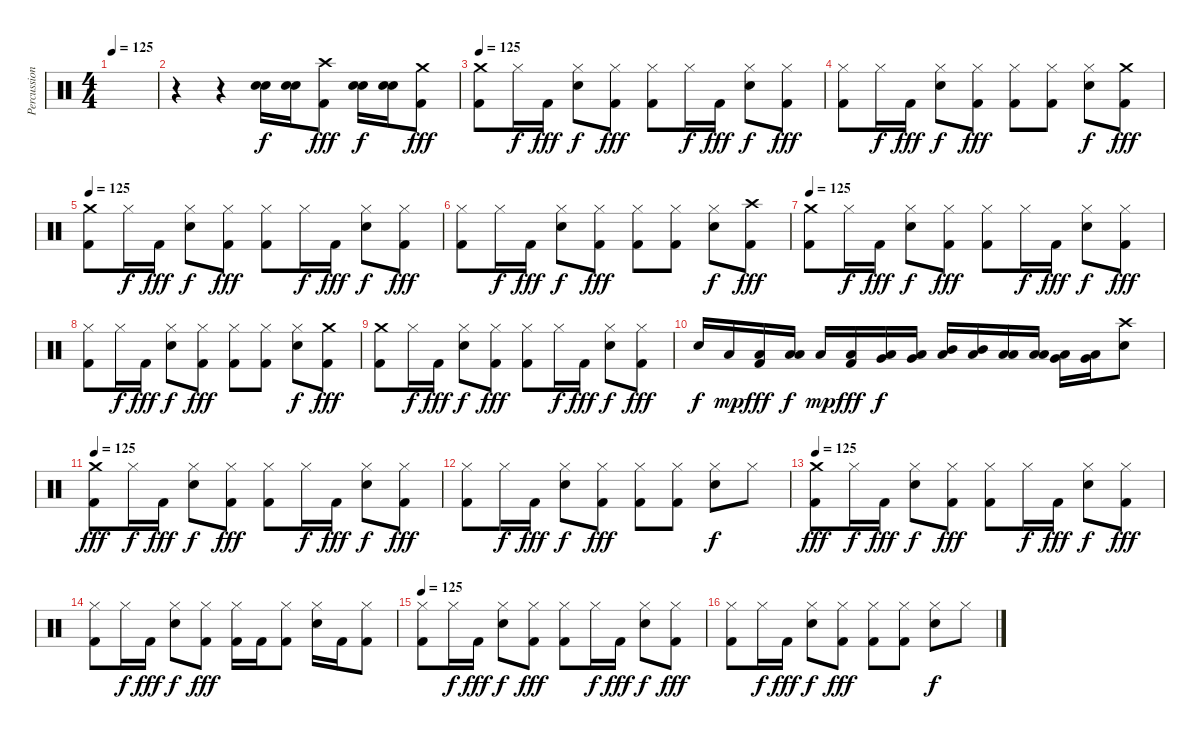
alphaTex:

\track ("Percussion" "Percussion") {instrument percussion}
\staff {score}
\articulation defaults
\ts (4 4)
\tempo 125
\clef neutral
\ks c
|
r.4 r.4 ("Electric Snare (hit)" "Snare (hit) 2").16{dy f} ("Electric Snare (hit)" "Snare (hit) 2").16 ("Crash high (hit)" "Kick (hit) 2").8{dy fff} ("Electric Snare (hit)" "Snare (hit) 2").16{dy f} ("Electric Snare (hit)" "Snare (hit) 2").16 ("Crash medium (hit)" "Kick (hit) 2").8{dy fff} |
\tempo 125
("Crash medium (hit)" "Kick (hit) 2").8 "Hi-Hat (closed)".16{dy f} "Kick (hit) 2".16{dy fff} ("Hi-Hat (closed)" "Electric Snare (hit)").8{dy f} ("Hi-Hat (closed)" "Kick (hit) 2").8{dy fff} ("Hi-Hat (closed)" "Kick (hit) 2").8 "Hi-Hat (closed)".16{dy f} "Kick (hit) 2".16{dy fff} ("Hi-Hat (closed)" "Electric Snare (hit)").8{dy f} ("Hi-Hat (closed)" "Kick (hit) 2").8{dy fff} |
("Hi-Hat (closed)" "Kick (hit) 2").8 "Hi-Hat (closed)".16{dy f} "Kick (hit) 2".16{dy fff} ("Hi-Hat (closed)" "Electric Snare (hit)").8{dy f} ("Hi-Hat (closed)" "Kick (hit) 2").8{dy fff} ("Hi-Hat (closed)" "Kick (hit) 2").8 ("Hi-Hat (closed)" "Kick (hit) 2").8 ("Hi-Hat (closed)" "Electric Snare (hit)").8{dy f} ("Crash medium (hit)" "Kick (hit) 2").8{dy fff} |
\tempo 125
("Crash medium (hit)" "Kick (hit) 2").8 "Hi-Hat (closed)".16{dy f} "Kick (hit) 2".16{dy fff} ("Hi-Hat (closed)" "Electric Snare (hit)").8{dy f} ("Hi-Hat (closed)" "Kick (hit) 2").8{dy fff} ("Hi-Hat (closed)" "Kick (hit) 2").8 "Hi-Hat (closed)".16{dy f} "Kick (hit) 2".16{dy fff} ("Hi-Hat (closed)" "Electric Snare (hit)").8{dy f} ("Hi-Hat (closed)" "Kick (hit) 2").8{dy fff} |
("Hi-Hat (closed)" "Kick (hit) 2").8 "Hi-Hat (closed)".16{dy f} "Kick (hit) 2".16{dy fff} ("Hi-Hat (closed)" "Electric Snare (hit)").8{dy f} ("Hi-Hat (closed)" "Kick (hit) 2").8{dy fff} ("Hi-Hat (closed)" "Kick (hit) 2").8 ("Hi-Hat (closed)" "Kick (hit) 2").8 ("Hi-Hat (closed)" "Electric Snare (hit)").8{dy f} ("Crash high (hit)" "Kick (hit) 2").8{dy fff} |
\tempo 125
("Crash medium (hit)" "Kick (hit) 2").8 "Hi-Hat (closed)".16{dy f} "Kick (hit) 2".16{dy fff} ("Hi-Hat (closed)" "Electric Snare (hit)").8{dy f} ("Hi-Hat (closed)" "Kick (hit) 2").8{dy fff} ("Hi-Hat (closed)" "Kick (hit) 2").8 "Hi-Hat (closed)".16{dy f} "Kick (hit) 2".16{dy fff} ("Hi-Hat (closed)" "Electric Snare (hit)").8{dy f} ("Hi-Hat (closed)" "Kick (hit) 2").8{dy fff} |
("Hi-Hat (closed)" "Kick (hit) 2").8 "Hi-Hat (closed)".16{dy f} "Kick (hit) 2".16{dy fff} ("Hi-Hat (closed)" "Electric Snare (hit)").8{dy f} ("Hi-Hat (closed)" "Kick (hit) 2").8{dy fff} ("Hi-Hat (closed)" "Kick (hit) 2").8 ("Hi-Hat (closed)" "Kick (hit) 2").8 ("Hi-Hat (closed)" "Electric Snare (hit)").8{dy f} ("Crash medium (hit)" "Kick (hit) 2").8{dy fff} |
("Crash medium (hit)" "Kick (hit) 2").8 "Hi-Hat (closed)".16{dy f} "Kick (hit) 2".16{dy fff} ("Hi-Hat (closed)" "Electric Snare (hit)").8{dy f} ("Hi-Hat (closed)" "Kick (hit) 2").8{dy fff} ("Hi-Hat (closed)" "Kick (hit) 2").8 "Hi-Hat (closed)".16{dy f} "Kick (hit) 2".16{dy fff} ("Hi-Hat (closed)" "Electric Snare (hit)").8{dy f} ("Hi-Hat (closed)" "Kick (hit) 2").8{dy fff} |
"Electric Snare (hit)".16{dy f} "Low Floor Tom (hit)".16{dy mp} ("Low Floor Tom (hit)" "Kick (hit) 2").16{dy fff} ("Low Floor Tom (hit)" "Low Tom (hit)").16{dy f} "Low Floor Tom (hit)".16{dy mp} ("Low Floor Tom (hit)" "Kick (hit) 2").16{dy fff} ("Very Low Tom (hit)" "Low Floor Tom (hit)").16{dy f} ("Very Low Tom (hit)" "Low Floor Tom (hit)").16 ("Mid Tom (hit)" "Low Floor Tom (hit)").16 ("Mid Tom (hit)" "Low Floor Tom (hit)").16 ("Low Tom (hit)" "Low Floor Tom (hit)").16 ("Low Tom (hit)" "Low Floor Tom (hit)").16 ("Very Low Tom (hit)" "Low Floor Tom (hit)").16 ("Very Low Tom (hit)" "Low Floor Tom (hit)").16 ("Crash high (hit)" "Electric Snare (hit)").8 |
\tempo 125
("Crash medium (hit)" "Kick (hit) 2").8{dy fff} "Hi-Hat (closed)".16{dy f} "Kick (hit) 2".16{dy fff} ("Hi-Hat (closed)" "Electric Snare (hit)").8{dy f} ("Hi-Hat (closed)" "Kick (hit) 2").8{dy fff} ("Hi-Hat (closed)" "Kick (hit) 2").8 "Hi-Hat (closed)".16{dy f} "Kick (hit) 2".16{dy fff} ("Hi-Hat (closed)" "Electric Snare (hit)").8{dy f} ("Hi-Hat (closed)" "Kick (hit) 2").8{dy fff} |
("Hi-Hat (closed)" "Kick (hit) 2").8 "Hi-Hat (closed)".16{dy f} "Kick (hit) 2".16{dy fff} ("Hi-Hat (closed)" "Electric Snare (hit)").8{dy f} ("Hi-Hat (closed)" "Kick (hit) 2").8{dy fff} ("Hi-Hat (closed)" "Kick (hit) 2").8 ("Hi-Hat (closed)" "Kick (hit) 2").8 ("Hi-Hat (closed)" "Electric Snare (hit)").8{dy f} "Hi-Hat (closed)".8 |
\tempo 125
("Crash medium (hit)" "Kick (hit) 2").8{dy fff} "Hi-Hat (closed)".16{dy f} "Kick (hit) 2".16{dy fff} ("Hi-Hat (closed)" "Electric Snare (hit)").8{dy f} ("Hi-Hat (closed)" "Kick (hit) 2").8{dy fff} ("Hi-Hat (closed)" "Kick (hit) 2").8 "Hi-Hat (closed)".16{dy f} "Kick (hit) 2".16{dy fff} ("Hi-Hat (closed)" "Electric Snare (hit)").8{dy f} ("Hi-Hat (closed)" "Kick (hit) 2").8{dy fff} |
("Hi-Hat (closed)" "Kick (hit) 2").8 "Hi-Hat (closed)".16{dy f} "Kick (hit) 2".16{dy fff} ("Hi-Hat (closed)" "Electric Snare (hit)").8{dy f} ("Hi-Hat (closed)" "Kick (hit) 2").8{dy fff} ("Hi-Hat (closed)" "Kick (hit) 2").16 "Kick (hit) 2".16 ("Hi-Hat (closed)" "Kick (hit) 2").8 ("Hi-Hat (closed)" "Electric Snare (hit)").16 "Kick (hit) 2".16 ("Hi-Hat (closed)" "Kick (hit) 2").8 |
\tempo 125
("Hi-Hat (closed)" "Kick (hit) 2").8 "Hi-Hat (closed)".16{dy f} "Kick (hit) 2".16{dy fff} ("Hi-Hat (closed)" "Electric Snare (hit)").8{dy f} ("Hi-Hat (closed)" "Kick (hit) 2").8{dy fff} ("Hi-Hat (closed)" "Kick (hit) 2").8 "Hi-Hat (closed)".16{dy f} "Kick (hit) 2".16{dy fff} ("Hi-Hat (closed)" "Electric Snare (hit)").8{dy f} ("Hi-Hat (closed)" "Kick (hit) 2").8{dy fff} |
("Hi-Hat (closed)" "Kick (hit) 2").8 "Hi-Hat (closed)".16{dy f} "Kick (hit) 2".16{dy fff} ("Hi-Hat (closed)" "Electric Snare (hit)").8{dy f} ("Hi-Hat (closed)" "Kick (hit) 2").8{dy fff} ("Hi-Hat (closed)" "Kick (hit) 2").8 ("Hi-Hat (closed)" "Kick (hit) 2").8 ("Hi-Hat (closed)" "Electric Snare (hit)").8{dy f} "Hi-Hat (closed)".8
